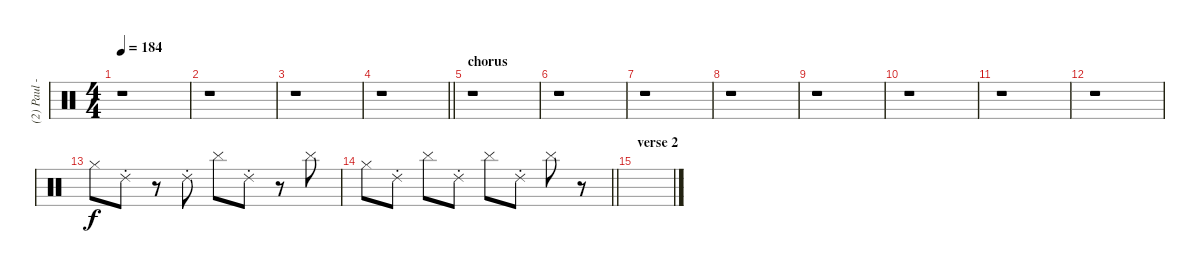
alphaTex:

\track ("(2) Paul - DJ" "(2) Paul -") {instrument percussion}
\staff {score}
\articulation defaults
\ts (4 4)
\tempo 184
\clef neutral
\ks c
r.1{dy f} |
r.1 |
r.1 |
\barLineRight lightlight
r.1 |
\section ("" "chorus")
r.1 |
r.1 |
r.1 |
r.1 |
r.1 |
r.1 |
r.1 |
r.1 |
"Hi-Hat (closed)".8 "Ride (choke) 2".8 r.8 "Ride (choke) 2".8 "Cymbal (hit)".8 "Ride (choke) 2".8 r.8 "Cymbal (hit)".8 |
\barLineRight lightlight "Hi-Hat (closed)".8 "Ride (choke) 2".8 "Cymbal (hit)".8 "Ride (choke) 2".8 "Cymbal (hit)".8 "Ride (choke) 2".8 "Cymbal (hit)".8
r.8 |
\section ("" "verse 2")
